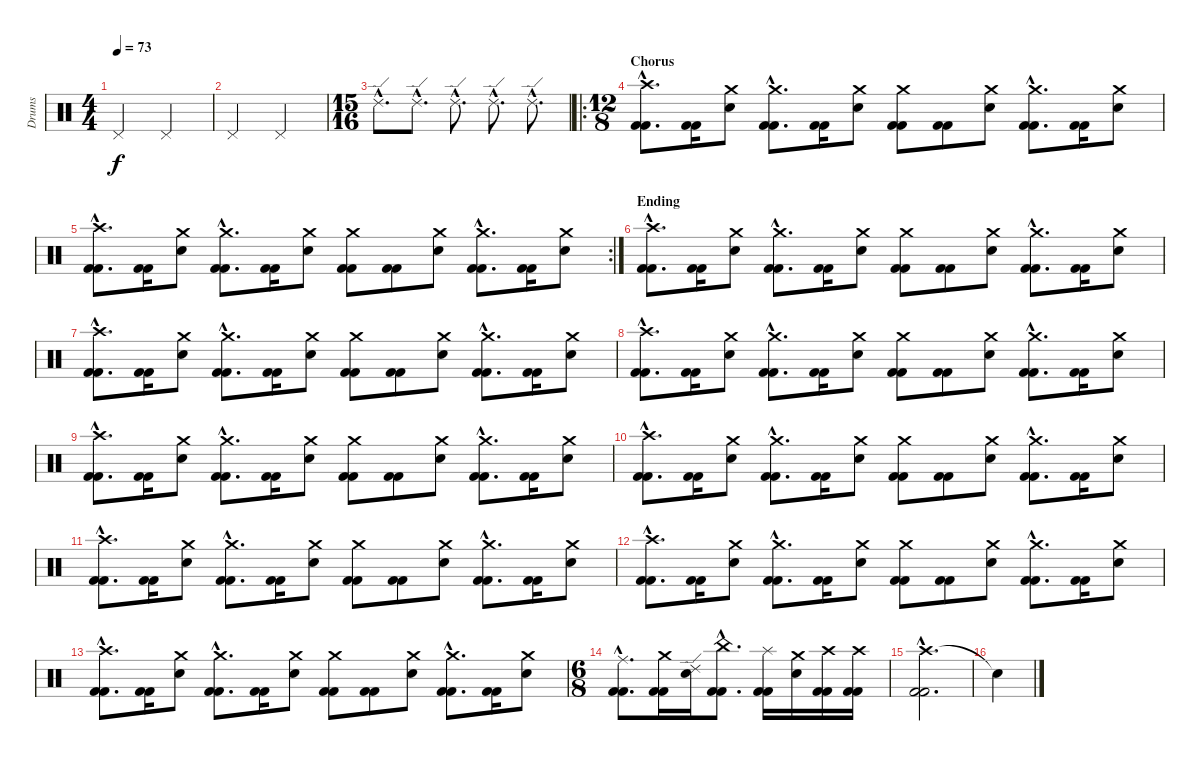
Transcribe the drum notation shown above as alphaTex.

\track ("Drums" "Drums") {instrument percussion}
\staff {score}
\articulation defaults
\ts (4 4)
\tempo 73
\clef neutral
\ks c "Pedal Hi-Hat (hit)".2{dy f} "Pedal Hi-Hat (hit)".2
|
"Pedal Hi-Hat (hit)".2 "Pedal Hi-Hat (hit)".2 |
\ts (15 16)
"Ride (edge) 2"{hac}.8{d} "Ride (edge) 2"{hac}.8{d} "Ride (edge) 2"{hac}.8{d} "Ride (edge) 2"{hac}.8{d} "Ride (edge) 2"{hac}.8{d} |
\ro
\ts (12 8)
\section ("" "Chorus")
("Crash high (hit)"{hac} "Kick (hit) 2"{hac} "Kick (hit) 2"{hac}).8{d} ("Kick (hit) 2" "Kick (hit) 2").16 ("Crash medium (hit)" "Snare (hit) 2").8 ("Crash medium (hit)"{hac} "Kick (hit) 2"{hac} "Kick (hit) 2"{hac}).8{d} ("Kick (hit) 2" "Kick (hit) 2").16 ("Crash medium (hit)" "Snare (hit) 2").8 ("Crash medium (hit)" "Kick (hit) 2" "Kick (hit) 2").8 ("Kick (hit) 2" "Kick (hit) 2").8 ("Crash medium (hit)" "Snare (hit) 2").8 ("Crash medium (hit)"{hac} "Kick (hit) 2"{hac} "Kick (hit) 2"{hac}).8{d} ("Kick (hit) 2" "Kick (hit) 2").16 ("Crash medium (hit)" "Snare (hit) 2").8 |
\rc 2
("Crash high (hit)"{hac} "Kick (hit) 2"{hac} "Kick (hit) 2"{hac}).8{d} ("Kick (hit) 2" "Kick (hit) 2").16 ("Crash medium (hit)" "Snare (hit) 2").8 ("Crash medium (hit)"{hac} "Kick (hit) 2"{hac} "Kick (hit) 2"{hac}).8{d} ("Kick (hit) 2" "Kick (hit) 2").16 ("Crash medium (hit)" "Snare (hit) 2").8 ("Crash medium (hit)" "Kick (hit) 2" "Kick (hit) 2").8 ("Kick (hit) 2" "Kick (hit) 2").8 ("Crash medium (hit)" "Snare (hit) 2").8 ("Crash medium (hit)"{hac} "Kick (hit) 2"{hac} "Kick (hit) 2"{hac}).8{d} ("Kick (hit) 2" "Kick (hit) 2").16 ("Crash medium (hit)" "Snare (hit) 2").8 |
\section ("" "Ending")
("Crash high (hit)"{hac} "Kick (hit) 2"{hac} "Kick (hit) 2"{hac}).8{d} ("Kick (hit) 2" "Kick (hit) 2").16 ("Crash medium (hit)" "Snare (hit) 2").8 ("Crash medium (hit)"{hac} "Kick (hit) 2"{hac} "Kick (hit) 2"{hac}).8{d} ("Kick (hit) 2" "Kick (hit) 2").16 ("Crash medium (hit)" "Snare (hit) 2").8 ("Crash medium (hit)" "Kick (hit) 2" "Kick (hit) 2").8 ("Kick (hit) 2" "Kick (hit) 2").8 ("Crash medium (hit)" "Snare (hit) 2").8 ("Crash medium (hit)"{hac} "Kick (hit) 2"{hac} "Kick (hit) 2"{hac}).8{d} ("Kick (hit) 2" "Kick (hit) 2").16 ("Crash medium (hit)" "Snare (hit) 2").8 |
("Crash high (hit)"{hac} "Kick (hit) 2"{hac} "Kick (hit) 2"{hac}).8{d} ("Kick (hit) 2" "Kick (hit) 2").16 ("Crash medium (hit)" "Snare (hit) 2").8 ("Crash medium (hit)"{hac} "Kick (hit) 2"{hac} "Kick (hit) 2"{hac}).8{d} ("Kick (hit) 2" "Kick (hit) 2").16 ("Crash medium (hit)" "Snare (hit) 2").8 ("Crash medium (hit)" "Kick (hit) 2" "Kick (hit) 2").8 ("Kick (hit) 2" "Kick (hit) 2").8 ("Crash medium (hit)" "Snare (hit) 2").8 ("Crash medium (hit)"{hac} "Kick (hit) 2"{hac} "Kick (hit) 2"{hac}).8{d} ("Kick (hit) 2" "Kick (hit) 2").16 ("Crash medium (hit)" "Snare (hit) 2").8 |
("Crash high (hit)"{hac} "Kick (hit) 2"{hac} "Kick (hit) 2"{hac}).8{d} ("Kick (hit) 2" "Kick (hit) 2").16 ("Crash medium (hit)" "Snare (hit) 2").8 ("Crash medium (hit)"{hac} "Kick (hit) 2"{hac} "Kick (hit) 2"{hac}).8{d} ("Kick (hit) 2" "Kick (hit) 2").16 ("Crash medium (hit)" "Snare (hit) 2").8 ("Crash medium (hit)" "Kick (hit) 2" "Kick (hit) 2").8 ("Kick (hit) 2" "Kick (hit) 2").8 ("Crash medium (hit)" "Snare (hit) 2").8 ("Crash medium (hit)"{hac} "Kick (hit) 2"{hac} "Kick (hit) 2"{hac}).8{d} ("Kick (hit) 2" "Kick (hit) 2").16 ("Crash medium (hit)" "Snare (hit) 2").8 |
("Crash high (hit)"{hac} "Kick (hit) 2"{hac} "Kick (hit) 2"{hac}).8{d} ("Kick (hit) 2" "Kick (hit) 2").16 ("Crash medium (hit)" "Snare (hit) 2").8 ("Crash medium (hit)"{hac} "Kick (hit) 2"{hac} "Kick (hit) 2"{hac}).8{d} ("Kick (hit) 2" "Kick (hit) 2").16 ("Crash medium (hit)" "Snare (hit) 2").8 ("Crash medium (hit)" "Kick (hit) 2" "Kick (hit) 2").8 ("Kick (hit) 2" "Kick (hit) 2").8 ("Crash medium (hit)" "Snare (hit) 2").8 ("Crash medium (hit)"{hac} "Kick (hit) 2"{hac} "Kick (hit) 2"{hac}).8{d} ("Kick (hit) 2" "Kick (hit) 2").16 ("Crash medium (hit)" "Snare (hit) 2").8 |
("Crash high (hit)"{hac} "Kick (hit) 2"{hac} "Kick (hit) 2"{hac}).8{d} ("Kick (hit) 2" "Kick (hit) 2").16 ("Crash medium (hit)" "Snare (hit) 2").8 ("Crash medium (hit)"{hac} "Kick (hit) 2"{hac} "Kick (hit) 2"{hac}).8{d} ("Kick (hit) 2" "Kick (hit) 2").16 ("Crash medium (hit)" "Snare (hit) 2").8 ("Crash medium (hit)" "Kick (hit) 2" "Kick (hit) 2").8 ("Kick (hit) 2" "Kick (hit) 2").8 ("Crash medium (hit)" "Snare (hit) 2").8 ("Crash medium (hit)"{hac} "Kick (hit) 2"{hac} "Kick (hit) 2"{hac}).8{d} ("Kick (hit) 2" "Kick (hit) 2").16 ("Crash medium (hit)" "Snare (hit) 2").8 |
("Crash high (hit)"{hac} "Kick (hit) 2"{hac} "Kick (hit) 2"{hac}).8{d} ("Kick (hit) 2" "Kick (hit) 2").16 ("Crash medium (hit)" "Snare (hit) 2").8 ("Crash medium (hit)"{hac} "Kick (hit) 2"{hac} "Kick (hit) 2"{hac}).8{d} ("Kick (hit) 2" "Kick (hit) 2").16 ("Crash medium (hit)" "Snare (hit) 2").8 ("Crash medium (hit)" "Kick (hit) 2" "Kick (hit) 2").8 ("Kick (hit) 2" "Kick (hit) 2").8 ("Crash medium (hit)" "Snare (hit) 2").8 ("Crash medium (hit)"{hac} "Kick (hit) 2"{hac} "Kick (hit) 2"{hac}).8{d} ("Kick (hit) 2" "Kick (hit) 2").16 ("Crash medium (hit)" "Snare (hit) 2").8 |
("Crash high (hit)"{hac} "Kick (hit) 2"{hac} "Kick (hit) 2"{hac}).8{d} ("Kick (hit) 2" "Kick (hit) 2").16 ("Crash medium (hit)" "Snare (hit) 2").8 ("Crash medium (hit)"{hac} "Kick (hit) 2"{hac} "Kick (hit) 2"{hac}).8{d} ("Kick (hit) 2" "Kick (hit) 2").16 ("Crash medium (hit)" "Snare (hit) 2").8 ("Crash medium (hit)" "Kick (hit) 2" "Kick (hit) 2").8 ("Kick (hit) 2" "Kick (hit) 2").8 ("Crash medium (hit)" "Snare (hit) 2").8 ("Crash medium (hit)"{hac} "Kick (hit) 2"{hac} "Kick (hit) 2"{hac}).8{d} ("Kick (hit) 2" "Kick (hit) 2").16 ("Crash medium (hit)" "Snare (hit) 2").8 |
("Crash high (hit)"{hac} "Kick (hit) 2"{hac} "Kick (hit) 2"{hac}).8{d} ("Kick (hit) 2" "Kick (hit) 2").16 ("Crash medium (hit)" "Snare (hit) 2").8 ("Crash medium (hit)"{hac} "Kick (hit) 2"{hac} "Kick (hit) 2"{hac}).8{d} ("Kick (hit) 2" "Kick (hit) 2").16 ("Crash medium (hit)" "Snare (hit) 2").8 ("Crash medium (hit)" "Kick (hit) 2" "Kick (hit) 2").8 ("Kick (hit) 2" "Kick (hit) 2").8 ("Crash medium (hit)" "Snare (hit) 2").8 ("Crash medium (hit)"{hac} "Kick (hit) 2"{hac} "Kick (hit) 2"{hac}).8{d} ("Kick (hit) 2" "Kick (hit) 2").16 ("Crash medium (hit)" "Snare (hit) 2").8 |
\ts (6 8)
("Ride (middle)"{hac} "Kick (hit) 2"{hac} "Kick (hit) 2"{hac}).8{d} ("Crash medium (hit)" "Kick (hit) 2" "Kick (hit) 2").16 ("Ride (edge) 2" "Snare (hit) 2").16 ("China (hit)"{hac} "Kick (hit) 2"{hac} "Kick (hit) 2"{hac}).8{d} ("Splash (hit)" "Kick (hit) 2" "Kick (hit) 2").16 ("Crash medium (hit)" "Snare (hit) 2").16 ("Crash high (hit)" "Kick (hit) 2" "Kick (hit) 2").16 ("Crash high (hit)" "Kick (hit) 2" "Kick (hit) 2").16 |
("Crash high (hit)"{hac} "Kick (hit) 2"{hac} "Kick (hit) 2"{hac}).2{d} |
"Snare (hit)"{t}.4
